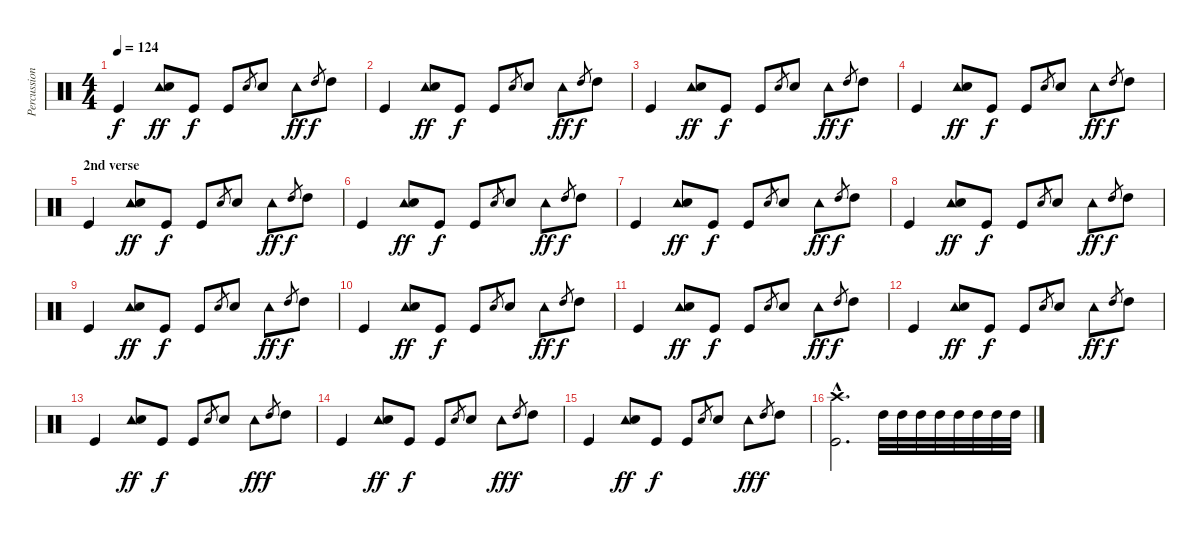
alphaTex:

\track ("Percussion" "Percussion") {instrument percussion}
\staff {score}
\articulation defaults
\ts (4 4)
\tempo 124
\clef neutral
\ks c "Kick (hit)".4{dy f}
("Tambourine (hit)" "Snare (hit) 2").8{dy ff} "Kick (hit)".8{dy f} "Kick (hit)".8 "Snare (hit) 2".8{gr} "Snare (hit) 2".8 "Tambourine (hit)".8{dy ff} "High Tom (hit)".8{gr dy f} "High Tom (hit)".8 |
"Kick (hit)".4 ("Tambourine (hit)" "Snare (hit) 2").8{dy ff} "Kick (hit)".8{dy f} "Kick (hit)".8 "Snare (hit) 2".8{gr} "Snare (hit) 2".8 "Tambourine (hit)".8{dy ff} "High Tom (hit)".8{gr dy f} "High Tom (hit)".8 |
"Kick (hit)".4 ("Tambourine (hit)" "Snare (hit) 2").8{dy ff} "Kick (hit)".8{dy f} "Kick (hit)".8 "Snare (hit) 2".8{gr} "Snare (hit) 2".8 "Tambourine (hit)".8{dy ff} "High Tom (hit)".8{gr dy f} "High Tom (hit)".8 |
"Kick (hit)".4 ("Tambourine (hit)" "Snare (hit) 2").8{dy ff} "Kick (hit)".8{dy f} "Kick (hit)".8 "Snare (hit) 2".8{gr} "Snare (hit) 2".8 "Tambourine (hit)".8{dy ff} "High Tom (hit)".8{gr dy f} "High Tom (hit)".8 |
\section ("" "2nd verse")
"Kick (hit)".4 ("Tambourine (hit)" "Snare (hit) 2").8{dy ff} "Kick (hit)".8{dy f} "Kick (hit)".8 "Snare (hit) 2".8{gr} "Snare (hit) 2".8 "Tambourine (hit)".8{dy ff} "High Tom (hit)".8{gr dy f} "High Tom (hit)".8 |
"Kick (hit)".4 ("Tambourine (hit)" "Snare (hit) 2").8{dy ff} "Kick (hit)".8{dy f} "Kick (hit)".8 "Snare (hit) 2".8{gr} "Snare (hit) 2".8 "Tambourine (hit)".8{dy ff} "High Tom (hit)".8{gr dy f} "High Tom (hit)".8 |
"Kick (hit)".4 ("Tambourine (hit)" "Snare (hit) 2").8{dy ff} "Kick (hit)".8{dy f} "Kick (hit)".8 "Snare (hit) 2".8{gr} "Snare (hit) 2".8 "Tambourine (hit)".8{dy ff} "High Tom (hit)".8{gr dy f} "High Tom (hit)".8 |
"Kick (hit)".4 ("Tambourine (hit)" "Snare (hit) 2").8{dy ff} "Kick (hit)".8{dy f} "Kick (hit)".8 "Snare (hit) 2".8{gr} "Snare (hit) 2".8 "Tambourine (hit)".8{dy ff} "High Tom (hit)".8{gr dy f} "High Tom (hit)".8 |
"Kick (hit)".4 ("Tambourine (hit)" "Snare (hit) 2").8{dy ff} "Kick (hit)".8{dy f} "Kick (hit)".8 "Snare (hit) 2".8{gr} "Snare (hit) 2".8 "Tambourine (hit)".8{dy ff} "High Tom (hit)".8{gr dy f} "High Tom (hit)".8 |
"Kick (hit)".4 ("Tambourine (hit)" "Snare (hit) 2").8{dy ff} "Kick (hit)".8{dy f} "Kick (hit)".8 "Snare (hit) 2".8{gr} "Snare (hit) 2".8 "Tambourine (hit)".8{dy ff} "High Tom (hit)".8{gr dy f} "High Tom (hit)".8 |
"Kick (hit)".4 ("Tambourine (hit)" "Snare (hit) 2").8{dy ff} "Kick (hit)".8{dy f} "Kick (hit)".8 "Snare (hit) 2".8{gr} "Snare (hit) 2".8 "Tambourine (hit)".8{dy ff} "High Tom (hit)".8{gr dy f} "High Tom (hit)".8 |
"Kick (hit)".4 ("Tambourine (hit)" "Snare (hit) 2").8{dy ff} "Kick (hit)".8{dy f} "Kick (hit)".8 "Snare (hit) 2".8{gr} "Snare (hit) 2".8 "Tambourine (hit)".8{dy ff} "High Tom (hit)".8{gr dy f} "High Tom (hit)".8 |
"Kick (hit)".4 ("Tambourine (hit)" "Snare (hit) 2").8{dy ff} "Kick (hit)".8{dy f} "Kick (hit)".8 "Snare (hit) 2".8{gr} "Snare (hit) 2".8 "Tambourine (hit)".8{dy ff} "High Tom (hit)".8{gr dy f} "High Tom (hit)".8 |
"Kick (hit)".4 ("Tambourine (hit)" "Snare (hit) 2").8{dy ff} "Kick (hit)".8{dy f} "Kick (hit)".8 "Snare (hit) 2".8{gr} "Snare (hit) 2".8 "Tambourine (hit)".8{dy ff} "High Tom (hit)".8{gr dy f} "High Tom (hit)".8 |
"Kick (hit)".4 ("Tambourine (hit)" "Snare (hit) 2").8{dy ff} "Kick (hit)".8{dy f} "Kick (hit)".8 "Snare (hit) 2".8{gr} "Snare (hit) 2".8 "Tambourine (hit)".8{dy ff} "High Tom (hit)".8{gr dy f} "High Tom (hit)".8 |
("Crash high (hit)"{hac} "Kick (hit)"{hac}).2{d} "High Tom (hit)".32 "High Tom (hit)".32 "High Tom (hit)".32 "High Tom (hit)".32 "High Tom (hit)".32 "High Tom (hit)".32 "High Tom (hit)".32 "High Tom (hit)".32
